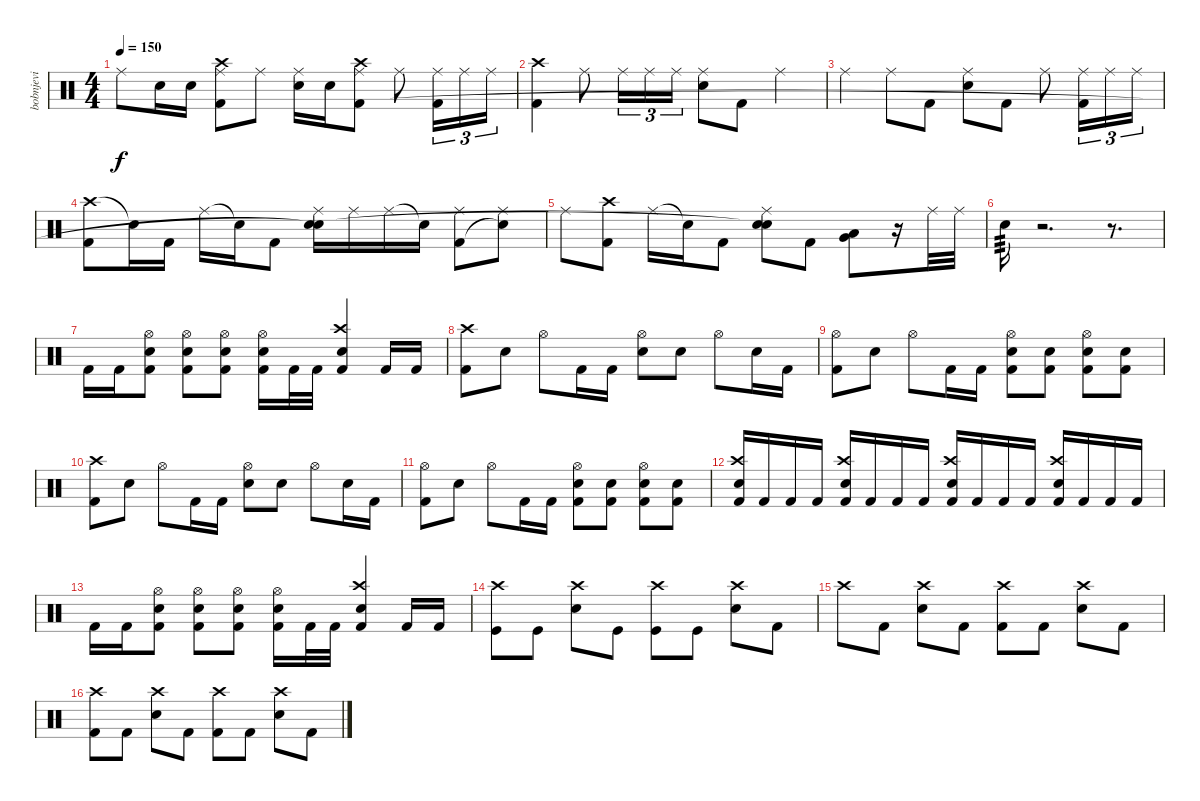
\track ("bobnjevi" "bobnjevi") {instrument percussion}
\staff {score}
\articulation defaults
\ts (4 4)
\tempo 150
\clef neutral
\ks c "Ride (middle)".8{dy f} "Electric Snare (hit)".16 "Electric Snare (hit)".16
("Crash high (hit)" "Ride (middle)" "Kick (hit) 2").8 "Ride (middle)".8 ("Ride (middle)" "Electric Snare (hit)").16 "Electric Snare (hit)".16 ("Crash high (hit)" "Ride (middle)" "Kick (hit) 2").8 "Ride (middle)".8 ("Ride (middle)" "Kick (hit) 2").16{tu (3 2)} "Ride (middle)".16{tu (3 2)} "Ride (middle)".16{tu (3 2)} |
("Crash high (hit)" "Kick (hit) 2").4 "Ride (middle)".8 "Ride (middle)".16{tu (3 2)} "Ride (middle)".16{tu (3 2)} "Ride (middle)".16{tu (3 2)} ("Ride (middle)" "Electric Snare (hit)").8 "Kick (hit) 2".8 "Ride (middle)".4 |
"Ride (middle)".4 "Ride (middle)".8 "Kick (hit) 2".8 ("Ride (middle)" "Electric Snare (hit)").8 "Kick (hit) 2".8 "Ride (middle)".8 ("Ride (middle)" "Kick (hit) 2").16{tu (3 2)} "Ride (middle)".16{tu (3 2)} "Ride (middle)".16{tu (3 2)} |
("Crash high (hit)" "Kick (hit) 2").8 "Snare (hit)"{t}.16 "Kick (hit) 2".16 "Ride (middle)".16 "Snare (hit)"{t}.16 "Kick (hit) 2".8 ("Ride (middle)" "Electric Snare (hit)" "Snare (hit)"{t}).16 "Ride (middle)".16 "Ride (middle)".16 "Snare (hit)"{t}.16 ("Ride (middle)" "Kick (hit) 2").8 ("Ride (middle)" "Snare (hit)"{t}).8 |
"Ride (middle)".8 ("Crash high (hit)" "Kick (hit) 2").8 "Ride (middle)".16 "Snare (hit)"{t}.16 "Kick (hit) 2".8 ("Ride (middle)" "Electric Snare (hit)" "Snare (hit)"{t}).8 "Kick (hit) 2".8 ("Very Low Tom (hit)" "Low Tom (hit)").8 r.16 "Ride (middle)".32 "Ride (middle)".32 |
"Electric Snare (hit)".16{tp 3} r.2{d} r.8{d} |
"Kick (hit) 2".16 "Kick (hit) 2".16 ("Hi-Hat (open)" "Electric Snare (hit)" "Kick (hit) 2").8 ("Hi-Hat (open)" "Electric Snare (hit)" "Kick (hit) 2").8 ("Hi-Hat (open)" "Electric Snare (hit)" "Kick (hit) 2").8 ("Hi-Hat (open)" "Electric Snare (hit)" "Kick (hit) 2").16 "Kick (hit) 2".32 "Kick (hit) 2".32 ("Crash high (hit)" "Electric Snare (hit)" "Kick (hit) 2").4 "Kick (hit) 2".16 "Kick (hit) 2".16 |
("Crash high (hit)" "Kick (hit) 2").8 "Electric Snare (hit)".8 "Hi-Hat (open)".8 "Kick (hit) 2".16 "Kick (hit) 2".16 ("Hi-Hat (open)" "Electric Snare (hit)").8 "Electric Snare (hit)".8 "Hi-Hat (open)".8 "Electric Snare (hit)".16 "Kick (hit) 2".16 |
("Hi-Hat (open)" "Kick (hit) 2").8 "Electric Snare (hit)".8 "Hi-Hat (open)".8 "Kick (hit) 2".16 "Kick (hit) 2".16 ("Hi-Hat (open)" "Electric Snare (hit)" "Kick (hit) 2").8 ("Electric Snare (hit)" "Kick (hit) 2").8 ("Hi-Hat (open)" "Electric Snare (hit)" "Kick (hit) 2").8 ("Electric Snare (hit)" "Kick (hit) 2").8 |
("Crash high (hit)" "Kick (hit) 2").8 "Electric Snare (hit)".8 "Hi-Hat (open)".8 "Kick (hit) 2".16 "Kick (hit) 2".16 ("Hi-Hat (open)" "Electric Snare (hit)").8 "Electric Snare (hit)".8 "Hi-Hat (open)".8 "Electric Snare (hit)".16 "Kick (hit) 2".16 |
("Hi-Hat (open)" "Kick (hit) 2").8 "Electric Snare (hit)".8 "Hi-Hat (open)".8 "Kick (hit) 2".16 "Kick (hit) 2".16 ("Hi-Hat (open)" "Electric Snare (hit)" "Kick (hit) 2").8 ("Electric Snare (hit)" "Kick (hit) 2").8 ("Hi-Hat (open)" "Electric Snare (hit)" "Kick (hit) 2").8 ("Electric Snare (hit)" "Kick (hit) 2").8 |
("Crash high (hit)" "Electric Snare (hit)" "Kick (hit) 2").16 "Kick (hit) 2".16 "Kick (hit) 2".16 "Kick (hit) 2".16 ("Crash high (hit)" "Electric Snare (hit)" "Kick (hit) 2").16 "Kick (hit) 2".16 "Kick (hit) 2".16 "Kick (hit) 2".16 ("Crash high (hit)" "Electric Snare (hit)" "Kick (hit) 2").16 "Kick (hit) 2".16 "Kick (hit) 2".16 "Kick (hit) 2".16 ("Crash high (hit)" "Electric Snare (hit)" "Kick (hit) 2").16 "Kick (hit) 2".16 "Kick (hit) 2".16 "Kick (hit) 2".16 |
"Kick (hit) 2".16 "Kick (hit) 2".16 ("Hi-Hat (open)" "Electric Snare (hit)" "Kick (hit) 2").8 ("Hi-Hat (open)" "Electric Snare (hit)" "Kick (hit) 2").8 ("Hi-Hat (open)" "Electric Snare (hit)" "Kick (hit) 2").8 ("Hi-Hat (open)" "Electric Snare (hit)" "Kick (hit) 2").16 "Kick (hit) 2".32 "Kick (hit) 2".32 ("Crash high (hit)" "Electric Snare (hit)" "Kick (hit) 2").4 "Kick (hit) 2".16 "Kick (hit) 2".16 |
("Crash high (hit)" "Kick (hit)").8 "Kick (hit)".8 ("Crash high (hit)" "Snare (hit) 2").8 "Kick (hit)".8 ("Crash high (hit)" "Kick (hit)").8 "Kick (hit)".8 ("Crash high (hit)" "Snare (hit) 2").8 "Kick (hit) 2".8 |
"Crash high (hit)".8 "Kick (hit) 2".8 ("Crash high (hit)" "Snare (hit) 2").8 "Kick (hit) 2".8 ("Crash high (hit)" "Kick (hit) 2").8 "Kick (hit) 2".8 ("Crash high (hit)" "Snare (hit) 2").8 "Kick (hit) 2".8 |
("Crash high (hit)" "Kick (hit) 2").8 "Kick (hit) 2".8 ("Crash high (hit)" "Snare (hit) 2").8 "Kick (hit) 2".8 ("Crash high (hit)" "Kick (hit) 2").8 "Kick (hit) 2".8 ("Crash high (hit)" "Snare (hit) 2").8 "Kick (hit) 2".8
